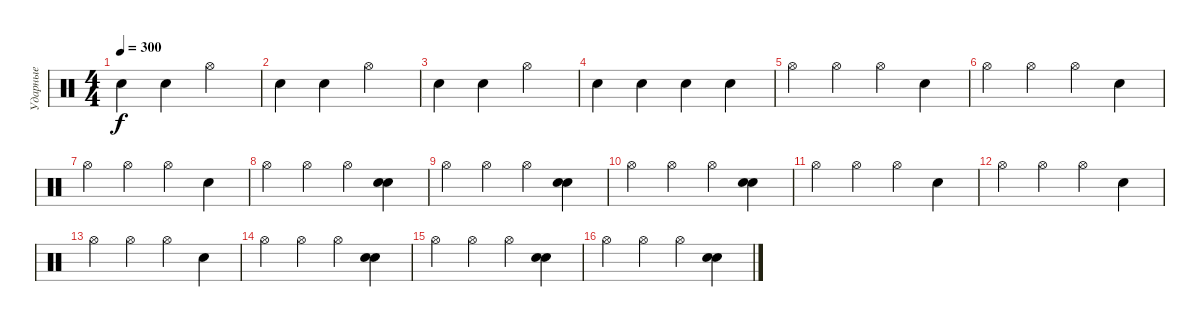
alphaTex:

\track ("Ударные" "Ударные") {instrument percussion}
\staff {score}
\articulation defaults
\ts (4 4)
\tempo 300
\clef neutral
\ks c "Electric Snare (hit)".4{dy f} "Electric Snare (hit)".4 "Hi-Hat (open)".2
|
"Electric Snare (hit)".4 "Electric Snare (hit)".4 "Hi-Hat (open)".2 |
"Electric Snare (hit)".4 "Electric Snare (hit)".4 "Hi-Hat (open)".2 |
"Electric Snare (hit)".4 "Electric Snare (hit)".4 "Electric Snare (hit)".4 "Electric Snare (hit)".4 |
"Hi-Hat (open)".4 "Hi-Hat (open)".4 "Hi-Hat (open)".4 "Electric Snare (hit)".4 |
"Hi-Hat (open)".4 "Hi-Hat (open)".4 "Hi-Hat (open)".4 "Electric Snare (hit)".4 |
"Hi-Hat (open)".4 "Hi-Hat (open)".4 "Hi-Hat (open)".4 "Electric Snare (hit)".4 |
"Hi-Hat (open)".4 "Hi-Hat (open)".4 "Hi-Hat (open)".4 ("Electric Snare (hit)" "Electric Snare (hit)").4 |
"Hi-Hat (open)".4 "Hi-Hat (open)".4 "Hi-Hat (open)".4 ("Electric Snare (hit)" "Electric Snare (hit)").4 |
"Hi-Hat (open)".4 "Hi-Hat (open)".4 "Hi-Hat (open)".4 ("Electric Snare (hit)" "Electric Snare (hit)").4 |
"Hi-Hat (open)".4 "Hi-Hat (open)".4 "Hi-Hat (open)".4 "Electric Snare (hit)".4 |
"Hi-Hat (open)".4 "Hi-Hat (open)".4 "Hi-Hat (open)".4 "Electric Snare (hit)".4 |
"Hi-Hat (open)".4 "Hi-Hat (open)".4 "Hi-Hat (open)".4 "Electric Snare (hit)".4 |
"Hi-Hat (open)".4 "Hi-Hat (open)".4 "Hi-Hat (open)".4 ("Electric Snare (hit)" "Electric Snare (hit)").4 |
"Hi-Hat (open)".4 "Hi-Hat (open)".4 "Hi-Hat (open)".4 ("Electric Snare (hit)" "Electric Snare (hit)").4 |
"Hi-Hat (open)".4 "Hi-Hat (open)".4 "Hi-Hat (open)".4 ("Electric Snare (hit)" "Electric Snare (hit)").4
